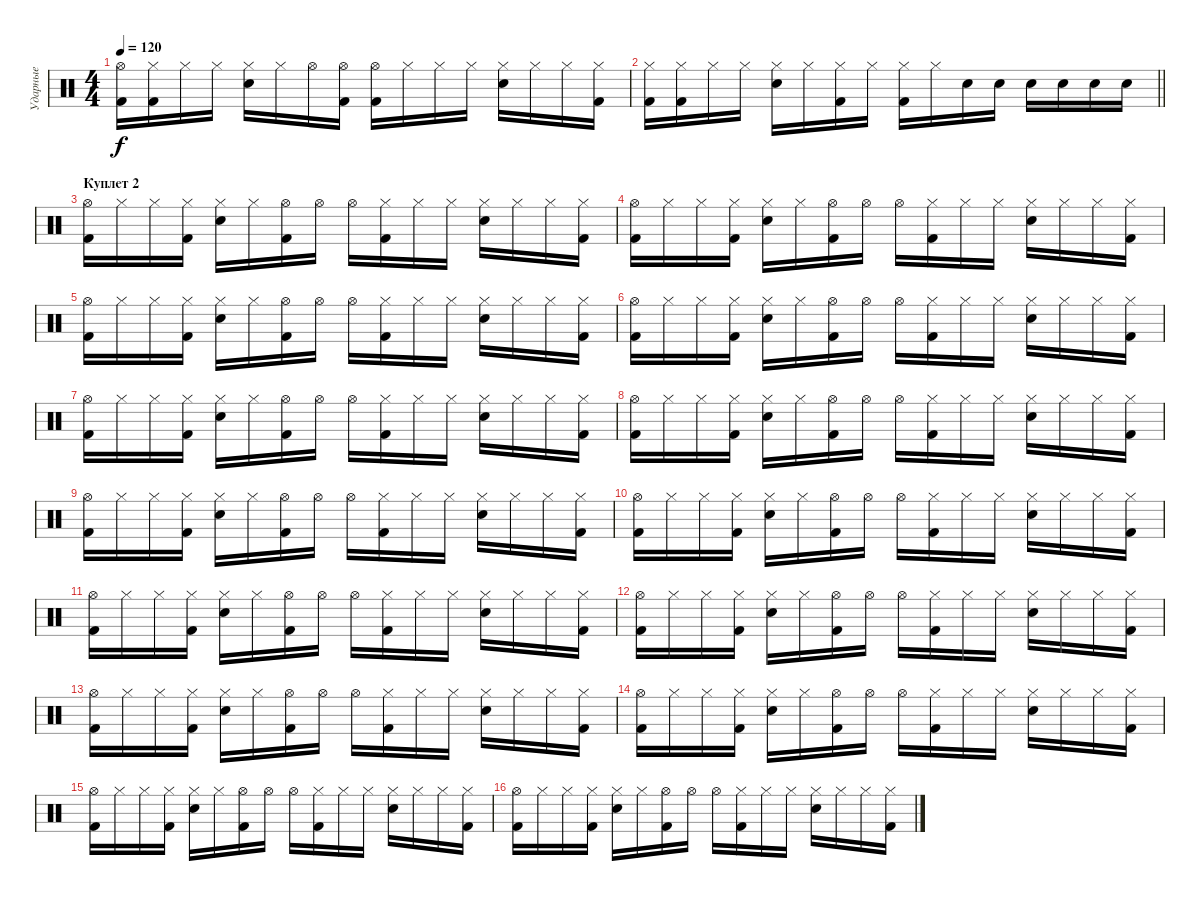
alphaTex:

\track ("Ударные" "Ударные") {instrument percussion}
\staff {score}
\articulation defaults
\ts (4 4)
\tempo 120
\clef neutral
\ks c
("Kick (hit) 2" "Hi-Hat (open)").16{dy f} ("Kick (hit) 2" "Hi-Hat (closed)").16 "Hi-Hat (closed)".16 "Hi-Hat (closed)".16 ("Electric Snare (hit)" "Hi-Hat (closed)").16 "Hi-Hat (closed)".16 "Hi-Hat (open)".16 ("Kick (hit) 2" "Hi-Hat (open)").16 ("Kick (hit) 2" "Hi-Hat (open)").16 "Hi-Hat (closed)".16 "Hi-Hat (closed)".16 "Hi-Hat (closed)".16 ("Electric Snare (hit)" "Hi-Hat (closed)").16 "Hi-Hat (closed)".16 "Hi-Hat (closed)".16 ("Kick (hit) 2" "Hi-Hat (closed)").16 |
\barLineRight lightlight
("Kick (hit) 2" "Hi-Hat (closed)").16 ("Kick (hit) 2" "Hi-Hat (closed)").16 "Hi-Hat (closed)".16 "Hi-Hat (closed)".16 ("Electric Snare (hit)" "Hi-Hat (closed)").16 "Hi-Hat (closed)".16 ("Kick (hit) 2" "Hi-Hat (closed)").16 "Hi-Hat (closed)".16 ("Kick (hit) 2" "Hi-Hat (closed)").16 "Hi-Hat (closed)".16 "Electric Snare (hit)".16 "Electric Snare (hit)".16 "Electric Snare (hit)".16 "Electric Snare (hit)".16 "Electric Snare (hit)".16 "Electric Snare (hit)".16 |
\section ("" "Куплет 2")
("Kick (hit) 2" "Hi-Hat (open)").16 "Hi-Hat (closed)".16 "Hi-Hat (closed)".16 ("Kick (hit) 2" "Hi-Hat (closed)").16 ("Electric Snare (hit)" "Hi-Hat (closed)").16 "Hi-Hat (closed)".16 ("Kick (hit) 2" "Hi-Hat (open)").16 "Hi-Hat (open)".16 "Hi-Hat (open)".16 ("Kick (hit) 2" "Hi-Hat (closed)").16 "Hi-Hat (closed)".16 "Hi-Hat (closed)".16 ("Electric Snare (hit)" "Hi-Hat (closed)").16 "Hi-Hat (closed)".16 "Hi-Hat (closed)".16 ("Kick (hit) 2" "Hi-Hat (closed)").16 |
("Kick (hit) 2" "Hi-Hat (open)").16 "Hi-Hat (closed)".16 "Hi-Hat (closed)".16 ("Kick (hit) 2" "Hi-Hat (closed)").16 ("Electric Snare (hit)" "Hi-Hat (closed)").16 "Hi-Hat (closed)".16 ("Kick (hit) 2" "Hi-Hat (open)").16 "Hi-Hat (open)".16 "Hi-Hat (open)".16 ("Kick (hit) 2" "Hi-Hat (closed)").16 "Hi-Hat (closed)".16 "Hi-Hat (closed)".16 ("Electric Snare (hit)" "Hi-Hat (closed)").16 "Hi-Hat (closed)".16 "Hi-Hat (closed)".16 ("Kick (hit) 2" "Hi-Hat (closed)").16 |
("Kick (hit) 2" "Hi-Hat (open)").16 "Hi-Hat (closed)".16 "Hi-Hat (closed)".16 ("Kick (hit) 2" "Hi-Hat (closed)").16 ("Electric Snare (hit)" "Hi-Hat (closed)").16 "Hi-Hat (closed)".16 ("Kick (hit) 2" "Hi-Hat (open)").16 "Hi-Hat (open)".16 "Hi-Hat (open)".16 ("Kick (hit) 2" "Hi-Hat (closed)").16 "Hi-Hat (closed)".16 "Hi-Hat (closed)".16 ("Electric Snare (hit)" "Hi-Hat (closed)").16 "Hi-Hat (closed)".16 "Hi-Hat (closed)".16 ("Kick (hit) 2" "Hi-Hat (closed)").16 |
("Kick (hit) 2" "Hi-Hat (open)").16 "Hi-Hat (closed)".16 "Hi-Hat (closed)".16 ("Kick (hit) 2" "Hi-Hat (closed)").16 ("Electric Snare (hit)" "Hi-Hat (closed)").16 "Hi-Hat (closed)".16 ("Kick (hit) 2" "Hi-Hat (open)").16 "Hi-Hat (open)".16 "Hi-Hat (open)".16 ("Kick (hit) 2" "Hi-Hat (closed)").16 "Hi-Hat (closed)".16 "Hi-Hat (closed)".16 ("Electric Snare (hit)" "Hi-Hat (closed)").16 "Hi-Hat (closed)".16 "Hi-Hat (closed)".16 ("Kick (hit) 2" "Hi-Hat (closed)").16 |
("Kick (hit) 2" "Hi-Hat (open)").16 "Hi-Hat (closed)".16 "Hi-Hat (closed)".16 ("Kick (hit) 2" "Hi-Hat (closed)").16 ("Electric Snare (hit)" "Hi-Hat (closed)").16 "Hi-Hat (closed)".16 ("Kick (hit) 2" "Hi-Hat (open)").16 "Hi-Hat (open)".16 "Hi-Hat (open)".16 ("Kick (hit) 2" "Hi-Hat (closed)").16 "Hi-Hat (closed)".16 "Hi-Hat (closed)".16 ("Electric Snare (hit)" "Hi-Hat (closed)").16 "Hi-Hat (closed)".16 "Hi-Hat (closed)".16 ("Kick (hit) 2" "Hi-Hat (closed)").16 |
("Kick (hit) 2" "Hi-Hat (open)").16 "Hi-Hat (closed)".16 "Hi-Hat (closed)".16 ("Kick (hit) 2" "Hi-Hat (closed)").16 ("Electric Snare (hit)" "Hi-Hat (closed)").16 "Hi-Hat (closed)".16 ("Kick (hit) 2" "Hi-Hat (open)").16 "Hi-Hat (open)".16 "Hi-Hat (open)".16 ("Kick (hit) 2" "Hi-Hat (closed)").16 "Hi-Hat (closed)".16 "Hi-Hat (closed)".16 ("Electric Snare (hit)" "Hi-Hat (closed)").16 "Hi-Hat (closed)".16 "Hi-Hat (closed)".16 ("Kick (hit) 2" "Hi-Hat (closed)").16 |
("Kick (hit) 2" "Hi-Hat (open)").16 "Hi-Hat (closed)".16 "Hi-Hat (closed)".16 ("Kick (hit) 2" "Hi-Hat (closed)").16 ("Electric Snare (hit)" "Hi-Hat (closed)").16 "Hi-Hat (closed)".16 ("Kick (hit) 2" "Hi-Hat (open)").16 "Hi-Hat (open)".16 "Hi-Hat (open)".16 ("Kick (hit) 2" "Hi-Hat (closed)").16 "Hi-Hat (closed)".16 "Hi-Hat (closed)".16 ("Electric Snare (hit)" "Hi-Hat (closed)").16 "Hi-Hat (closed)".16 "Hi-Hat (closed)".16 ("Kick (hit) 2" "Hi-Hat (closed)").16 |
("Kick (hit) 2" "Hi-Hat (open)").16 "Hi-Hat (closed)".16 "Hi-Hat (closed)".16 ("Kick (hit) 2" "Hi-Hat (closed)").16 ("Electric Snare (hit)" "Hi-Hat (closed)").16 "Hi-Hat (closed)".16 ("Kick (hit) 2" "Hi-Hat (open)").16 "Hi-Hat (open)".16 "Hi-Hat (open)".16 ("Kick (hit) 2" "Hi-Hat (closed)").16 "Hi-Hat (closed)".16 "Hi-Hat (closed)".16 ("Electric Snare (hit)" "Hi-Hat (closed)").16 "Hi-Hat (closed)".16 "Hi-Hat (closed)".16 ("Kick (hit) 2" "Hi-Hat (closed)").16 |
("Kick (hit) 2" "Hi-Hat (open)").16 "Hi-Hat (closed)".16 "Hi-Hat (closed)".16 ("Kick (hit) 2" "Hi-Hat (closed)").16 ("Electric Snare (hit)" "Hi-Hat (closed)").16 "Hi-Hat (closed)".16 ("Kick (hit) 2" "Hi-Hat (open)").16 "Hi-Hat (open)".16 "Hi-Hat (open)".16 ("Kick (hit) 2" "Hi-Hat (closed)").16 "Hi-Hat (closed)".16 "Hi-Hat (closed)".16 ("Electric Snare (hit)" "Hi-Hat (closed)").16 "Hi-Hat (closed)".16 "Hi-Hat (closed)".16 ("Kick (hit) 2" "Hi-Hat (closed)").16 |
("Kick (hit) 2" "Hi-Hat (open)").16 "Hi-Hat (closed)".16 "Hi-Hat (closed)".16 ("Kick (hit) 2" "Hi-Hat (closed)").16 ("Electric Snare (hit)" "Hi-Hat (closed)").16 "Hi-Hat (closed)".16 ("Kick (hit) 2" "Hi-Hat (open)").16 "Hi-Hat (open)".16 "Hi-Hat (open)".16 ("Kick (hit) 2" "Hi-Hat (closed)").16 "Hi-Hat (closed)".16 "Hi-Hat (closed)".16 ("Electric Snare (hit)" "Hi-Hat (closed)").16 "Hi-Hat (closed)".16 "Hi-Hat (closed)".16 ("Kick (hit) 2" "Hi-Hat (closed)").16 |
("Kick (hit) 2" "Hi-Hat (open)").16 "Hi-Hat (closed)".16 "Hi-Hat (closed)".16 ("Kick (hit) 2" "Hi-Hat (closed)").16 ("Electric Snare (hit)" "Hi-Hat (closed)").16 "Hi-Hat (closed)".16 ("Kick (hit) 2" "Hi-Hat (open)").16 "Hi-Hat (open)".16 "Hi-Hat (open)".16 ("Kick (hit) 2" "Hi-Hat (closed)").16 "Hi-Hat (closed)".16 "Hi-Hat (closed)".16 ("Electric Snare (hit)" "Hi-Hat (closed)").16 "Hi-Hat (closed)".16 "Hi-Hat (closed)".16 ("Kick (hit) 2" "Hi-Hat (closed)").16 |
("Kick (hit) 2" "Hi-Hat (open)").16 "Hi-Hat (closed)".16 "Hi-Hat (closed)".16 ("Kick (hit) 2" "Hi-Hat (closed)").16 ("Electric Snare (hit)" "Hi-Hat (closed)").16 "Hi-Hat (closed)".16 ("Kick (hit) 2" "Hi-Hat (open)").16 "Hi-Hat (open)".16 "Hi-Hat (open)".16 ("Kick (hit) 2" "Hi-Hat (closed)").16 "Hi-Hat (closed)".16 "Hi-Hat (closed)".16 ("Electric Snare (hit)" "Hi-Hat (closed)").16 "Hi-Hat (closed)".16 "Hi-Hat (closed)".16 ("Kick (hit) 2" "Hi-Hat (closed)").16 |
("Kick (hit) 2" "Hi-Hat (open)").16 "Hi-Hat (closed)".16 "Hi-Hat (closed)".16 ("Kick (hit) 2" "Hi-Hat (closed)").16 ("Electric Snare (hit)" "Hi-Hat (closed)").16 "Hi-Hat (closed)".16 ("Kick (hit) 2" "Hi-Hat (open)").16 "Hi-Hat (open)".16 "Hi-Hat (open)".16 ("Kick (hit) 2" "Hi-Hat (closed)").16 "Hi-Hat (closed)".16 "Hi-Hat (closed)".16 ("Electric Snare (hit)" "Hi-Hat (closed)").16 "Hi-Hat (closed)".16 "Hi-Hat (closed)".16 ("Kick (hit) 2" "Hi-Hat (closed)").16 |
("Kick (hit) 2" "Hi-Hat (open)").16 "Hi-Hat (closed)".16 "Hi-Hat (closed)".16 ("Kick (hit) 2" "Hi-Hat (closed)").16 ("Electric Snare (hit)" "Hi-Hat (closed)").16 "Hi-Hat (closed)".16 ("Kick (hit) 2" "Hi-Hat (open)").16 "Hi-Hat (open)".16 "Hi-Hat (open)".16 ("Kick (hit) 2" "Hi-Hat (closed)").16 "Hi-Hat (closed)".16 "Hi-Hat (closed)".16 ("Electric Snare (hit)" "Hi-Hat (closed)").16 "Hi-Hat (closed)".16 "Hi-Hat (closed)".16 ("Kick (hit) 2" "Hi-Hat (closed)").16
